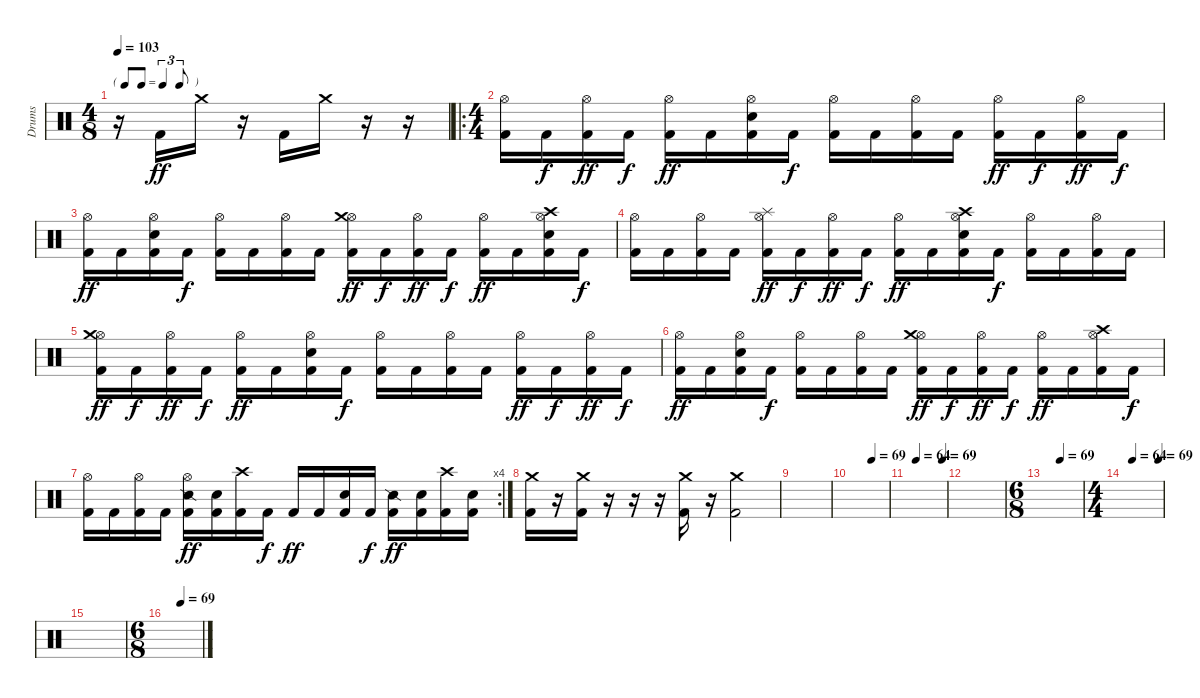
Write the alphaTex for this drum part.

\track ("Drums" "Drums") {instrument percussion}
\staff {score}
\articulation defaults
\ts (4 8)
\tf triplet8th
\tempo 103
\clef neutral
\ks c
r.16{dy f} "Kick (hit) 2".16{dy ff} "Crash medium (hit)".16 r.16 "Kick (hit) 2".16 "Crash medium (hit)".16 r.16 r.16 |
\ro
\ts (4 4)
("Hi-Hat (open)" "Kick (hit) 2").16 "Kick (hit) 2".16{dy f} ("Hi-Hat (open)" "Kick (hit) 2").16{dy ff} "Kick (hit) 2".16{dy f} ("Hi-Hat (open)" "Kick (hit) 2").16{dy ff} "Kick (hit) 2".16 ("Hi-Hat (open)" "Electric Snare (hit)" "Kick (hit) 2").16 "Kick (hit) 2".16{dy f} ("Hi-Hat (open)" "Kick (hit) 2").16 "Kick (hit) 2".16 ("Hi-Hat (open)" "Kick (hit) 2").16 "Kick (hit) 2".16 ("Hi-Hat (open)" "Kick (hit) 2").16{dy ff} "Kick (hit) 2".16{dy f} ("Hi-Hat (open)" "Kick (hit) 2").16{dy ff} "Kick (hit) 2".16{dy f} |
("Hi-Hat (open)" "Kick (hit) 2").16{dy ff} "Kick (hit) 2".16 ("Hi-Hat (open)" "Electric Snare (hit)" "Kick (hit) 2").16 "Kick (hit) 2".16{dy f} ("Hi-Hat (open)" "Kick (hit) 2").16 "Kick (hit) 2".16 ("Hi-Hat (open)" "Kick (hit) 2").16 "Kick (hit) 2".16 ("Hi-Hat (open)" "Crash medium (hit)" "Kick (hit) 2").16{dy ff} "Kick (hit) 2".16{dy f} ("Hi-Hat (open)" "Kick (hit) 2").16{dy ff} "Kick (hit) 2".16{dy f} ("Hi-Hat (open)" "Kick (hit) 2").16{dy ff} "Kick (hit) 2".16 ("Hi-Hat (open)" "Crash high (hit)" "Electric Snare (hit)" "Kick (hit) 2").16 "Kick (hit) 2".16{dy f} |
("Hi-Hat (open)" "Kick (hit) 2").16 "Kick (hit) 2".16 ("Hi-Hat (open)" "Kick (hit) 2").16 "Kick (hit) 2".16 ("Hi-Hat (open)" "Splash (hit)" "Kick (hit) 2").16{dy ff} "Kick (hit) 2".16{dy f} ("Hi-Hat (open)" "Kick (hit) 2").16{dy ff} "Kick (hit) 2".16{dy f} ("Hi-Hat (open)" "Kick (hit) 2").16{dy ff} "Kick (hit) 2".16 ("Hi-Hat (open)" "Crash high (hit)" "Electric Snare (hit)" "Kick (hit) 2").16 "Kick (hit) 2".16{dy f} ("Hi-Hat (open)" "Kick (hit) 2").16 "Kick (hit) 2".16 ("Hi-Hat (open)" "Kick (hit) 2").16 "Kick (hit) 2".16 |
("Hi-Hat (open)" "Crash medium (hit)" "Kick (hit) 2").16{dy ff} "Kick (hit) 2".16{dy f} ("Hi-Hat (open)" "Kick (hit) 2").16{dy ff} "Kick (hit) 2".16{dy f} ("Hi-Hat (open)" "Kick (hit) 2").16{dy ff} "Kick (hit) 2".16 ("Hi-Hat (open)" "Electric Snare (hit)" "Kick (hit) 2").16 "Kick (hit) 2".16{dy f} ("Hi-Hat (open)" "Kick (hit) 2").16 "Kick (hit) 2".16 ("Hi-Hat (open)" "Kick (hit) 2").16 "Kick (hit) 2".16 ("Hi-Hat (open)" "Kick (hit) 2").16{dy ff} "Kick (hit) 2".16{dy f} ("Hi-Hat (open)" "Kick (hit) 2").16{dy ff} "Kick (hit) 2".16{dy f} |
("Hi-Hat (open)" "Kick (hit) 2").16{dy ff} "Kick (hit) 2".16 ("Hi-Hat (open)" "Electric Snare (hit)" "Kick (hit) 2").16 "Kick (hit) 2".16{dy f} ("Hi-Hat (open)" "Kick (hit) 2").16 "Kick (hit) 2".16 ("Hi-Hat (open)" "Kick (hit) 2").16 "Kick (hit) 2".16 ("Hi-Hat (open)" "Crash medium (hit)" "Kick (hit) 2").16{dy ff} "Kick (hit) 2".16{dy f} ("Hi-Hat (open)" "Kick (hit) 2").16{dy ff} "Kick (hit) 2".16{dy f} ("Hi-Hat (open)" "Kick (hit) 2").16{dy ff} "Kick (hit) 2".16 ("Hi-Hat (open)" "Crash high (hit)" "Kick (hit) 2").16 "Kick (hit) 2".16{dy f} |
\rc 4
("Hi-Hat (open)" "Kick (hit) 2").16 "Kick (hit) 2".16 ("Hi-Hat (open)" "Kick (hit) 2").16 "Kick (hit) 2".16 ("Hi-Hat (open)" "Snare (side stick) 2" "Kick (hit) 2").16{dy ff} ("Electric Snare (hit)" "Kick (hit) 2").16 ("Crash high (hit)" "Kick (hit) 2").16 "Kick (hit) 2".16{dy f} "Kick (hit) 2".16{dy ff} "Kick (hit) 2".16 ("Electric Snare (hit)" "Kick (hit) 2").16 "Kick (hit) 2".16{dy f} ("Snare (side stick) 2" "Kick (hit) 2").16{dy ff} ("Electric Snare (hit)" "Kick (hit) 2").16 ("Crash high (hit)" "Kick (hit) 2").16 ("Electric Snare (hit)" "Kick (hit) 2").16 |
("Crash medium (hit)" "Kick (hit) 2").16 r.16 ("Crash medium (hit)" "Kick (hit) 2").16 r.16 r.16 r.16 ("Crash medium (hit)" "Kick (hit) 2").16 r.16 ("Crash medium (hit)" "Kick (hit) 2").2 |
|
\tempo (69 0.5625)
|
\tempo (64 0.21875)
\tempo (69 0.90625)
|
|
\ts (6 8)
\tempo (69 0.4166666666666667)
|
\ts (4 4)
\tempo (64 0.21875)
\tempo (69 0.90625)
|
|
\ts (6 8)
\tempo (69 0.4166666666666667)
